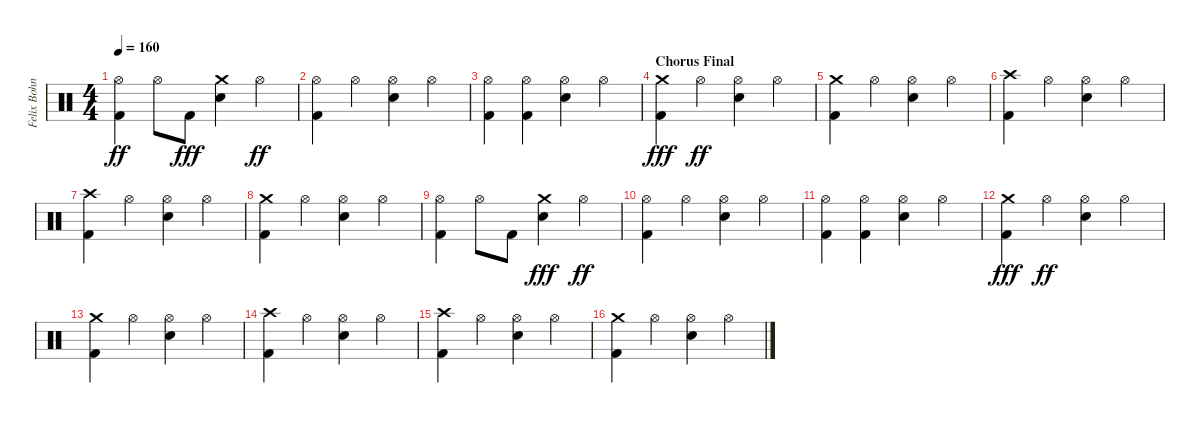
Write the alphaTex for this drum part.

\track ("Felix Bohnke" "Felix Bohn") {instrument percussion}
\staff {score}
\articulation defaults
\ts (4 4)
\tempo 160
\clef neutral
\ks c
("Kick (hit) 2" "Hi-Hat (open)").4{dy ff} "Hi-Hat (open)".8 "Kick (hit) 2".8{dy fff} ("Snare (hit) 2" "Crash medium (hit)").4 "Hi-Hat (open)".4{dy ff} |
("Kick (hit) 2" "Hi-Hat (open)").4 "Hi-Hat (open)".4 ("Snare (hit) 2" "Hi-Hat (open)").4 "Hi-Hat (open)".4 |
("Kick (hit) 2" "Hi-Hat (open)").4 ("Kick (hit) 2" "Hi-Hat (open)").4 ("Snare (hit) 2" "Hi-Hat (open)").4 "Hi-Hat (open)".4 |
\section ("" "Chorus Final")
("Kick (hit) 2" "Crash medium (hit)").4{dy fff} "Hi-Hat (open)".4{dy ff} ("Snare (hit) 2" "Hi-Hat (open)").4 "Hi-Hat (open)".4 |
("Kick (hit) 2" "Crash medium (hit)").4 "Hi-Hat (open)".4 ("Snare (hit) 2" "Hi-Hat (open)").4 "Hi-Hat (open)".4 |
("Kick (hit) 2" "Crash high (hit)").4 "Hi-Hat (open)".4 ("Snare (hit) 2" "Hi-Hat (open)").4 "Hi-Hat (open)".4 |
("Kick (hit) 2" "Crash high (hit)").4 "Hi-Hat (open)".4 ("Snare (hit) 2" "Hi-Hat (open)").4 "Hi-Hat (open)".4 |
("Kick (hit) 2" "Crash medium (hit)").4 "Hi-Hat (open)".4 ("Snare (hit) 2" "Hi-Hat (open)").4 "Hi-Hat (open)".4 |
("Kick (hit) 2" "Hi-Hat (open)").4 "Hi-Hat (open)".8 "Kick (hit) 2".8 ("Snare (hit) 2" "Crash medium (hit)").4{dy fff} "Hi-Hat (open)".4{dy ff} |
("Kick (hit) 2" "Hi-Hat (open)").4 "Hi-Hat (open)".4 ("Snare (hit) 2" "Hi-Hat (open)").4 "Hi-Hat (open)".4 |
("Kick (hit) 2" "Hi-Hat (open)").4 ("Kick (hit) 2" "Hi-Hat (open)").4 ("Snare (hit) 2" "Hi-Hat (open)").4 "Hi-Hat (open)".4 |
("Kick (hit) 2" "Crash medium (hit)").4{dy fff} "Hi-Hat (open)".4{dy ff} ("Snare (hit) 2" "Hi-Hat (open)").4 "Hi-Hat (open)".4 |
("Kick (hit) 2" "Crash medium (hit)").4 "Hi-Hat (open)".4 ("Snare (hit) 2" "Hi-Hat (open)").4 "Hi-Hat (open)".4 |
("Kick (hit) 2" "Crash high (hit)").4 "Hi-Hat (open)".4 ("Snare (hit) 2" "Hi-Hat (open)").4 "Hi-Hat (open)".4 |
("Kick (hit) 2" "Crash high (hit)").4 "Hi-Hat (open)".4 ("Snare (hit) 2" "Hi-Hat (open)").4 "Hi-Hat (open)".4 |
("Kick (hit) 2" "Crash medium (hit)").4 "Hi-Hat (open)".4 ("Snare (hit) 2" "Hi-Hat (open)").4 "Hi-Hat (open)".4
